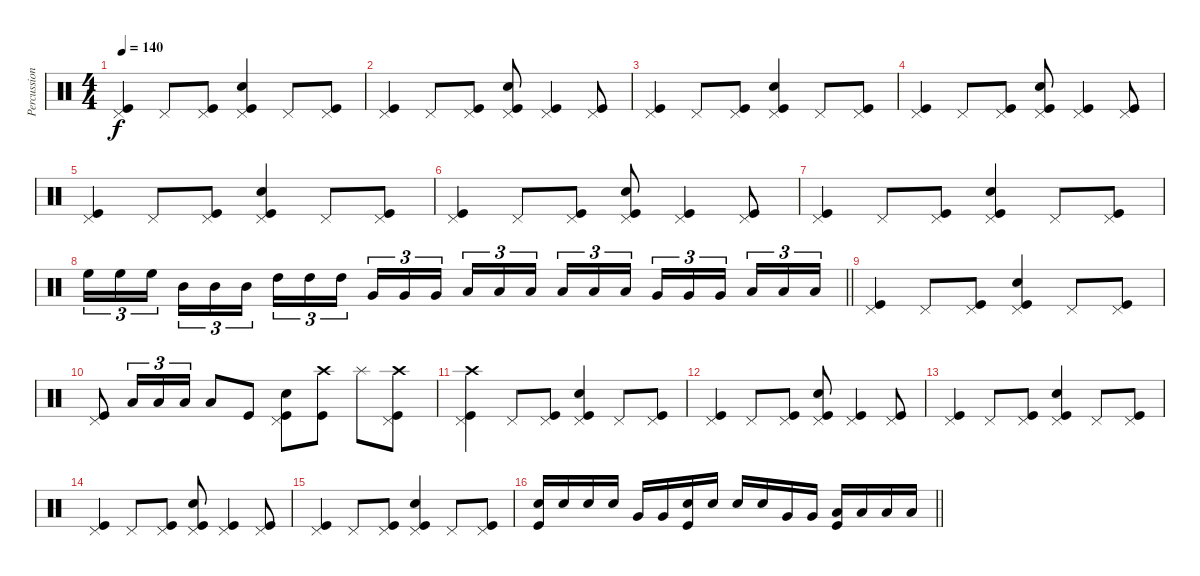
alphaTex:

\track ("Percussion" "Percussion") {instrument percussion}
\staff {score}
\articulation defaults
\ts (4 4)
\tempo 140
\clef neutral
\ks c
("Pedal Hi-Hat (hit)" "Kick (hit)").4{dy f} "Pedal Hi-Hat (hit)".8 ("Pedal Hi-Hat (hit)" "Kick (hit)").8 ("Pedal Hi-Hat (hit)" "Snare (hit) 2" "Kick (hit)").4 "Pedal Hi-Hat (hit)".8 ("Pedal Hi-Hat (hit)" "Kick (hit)").8 |
("Pedal Hi-Hat (hit)" "Kick (hit)").4 "Pedal Hi-Hat (hit)".8 ("Pedal Hi-Hat (hit)" "Kick (hit)").8 ("Pedal Hi-Hat (hit)" "Snare (hit) 2" "Kick (hit)").8 ("Pedal Hi-Hat (hit)" "Kick (hit)").4 ("Pedal Hi-Hat (hit)" "Kick (hit)").8 |
("Pedal Hi-Hat (hit)" "Kick (hit)").4 "Pedal Hi-Hat (hit)".8 ("Pedal Hi-Hat (hit)" "Kick (hit)").8 ("Pedal Hi-Hat (hit)" "Snare (hit) 2" "Kick (hit)").4 "Pedal Hi-Hat (hit)".8 ("Pedal Hi-Hat (hit)" "Kick (hit)").8 |
("Pedal Hi-Hat (hit)" "Kick (hit)").4 "Pedal Hi-Hat (hit)".8 ("Pedal Hi-Hat (hit)" "Kick (hit)").8 ("Pedal Hi-Hat (hit)" "Snare (hit) 2" "Kick (hit)").8 ("Pedal Hi-Hat (hit)" "Kick (hit)").4 ("Pedal Hi-Hat (hit)" "Kick (hit)").8 |
("Pedal Hi-Hat (hit)" "Kick (hit)").4 "Pedal Hi-Hat (hit)".8 ("Pedal Hi-Hat (hit)" "Kick (hit)").8 ("Pedal Hi-Hat (hit)" "Snare (hit) 2" "Kick (hit)").4 "Pedal Hi-Hat (hit)".8 ("Pedal Hi-Hat (hit)" "Kick (hit)").8 |
("Pedal Hi-Hat (hit)" "Kick (hit)").4 "Pedal Hi-Hat (hit)".8 ("Pedal Hi-Hat (hit)" "Kick (hit)").8 ("Pedal Hi-Hat (hit)" "Snare (hit) 2" "Kick (hit)").8 ("Pedal Hi-Hat (hit)" "Kick (hit)").4 ("Pedal Hi-Hat (hit)" "Kick (hit)").8 |
("Pedal Hi-Hat (hit)" "Kick (hit)").4 "Pedal Hi-Hat (hit)".8 ("Pedal Hi-Hat (hit)" "Kick (hit)").8 ("Pedal Hi-Hat (hit)" "Snare (hit) 2" "Kick (hit)").4 "Pedal Hi-Hat (hit)".8 ("Pedal Hi-Hat (hit)" "Kick (hit)").8 |
\barLineRight lightlight "High Floor Tom (hit)".16{tu (3 2)} "High Floor Tom (hit)".16{tu (3 2)} "High Floor Tom (hit)".16{tu (3 2) beam splitsecondary} "Mid Tom (hit)".16{tu (3 2)} "Mid Tom (hit)".16{tu (3 2)} "Mid Tom (hit)".16{tu (3 2)} "High Tom (hit)".16{tu (3 2)} "High Tom (hit)".16{tu (3 2)} "High Tom (hit)".16{tu (3 2) beam splitsecondary} "Very Low Tom (hit)".16{tu (3 2)} "Very Low Tom (hit)".16{tu (3 2)} "Very Low Tom (hit)".16{tu (3 2)} "Low Tom (hit)".16{tu (3 2)} "Low Tom (hit)".16{tu (3 2)} "Low Tom (hit)".16{tu (3 2) beam splitsecondary} "Low Floor Tom (hit)".16{tu (3 2)} "Low Floor Tom (hit)".16{tu (3 2)} "Low Floor Tom (hit)".16{tu (3 2)} "Very Low Tom (hit)".16{tu (3 2)} "Very Low Tom (hit)".16{tu (3 2)} "Very Low Tom (hit)".16{tu (3 2) beam splitsecondary} "Low Floor Tom (hit)".16{tu (3 2)} "Low Floor Tom (hit)".16{tu (3 2)} "Low Floor Tom (hit)".16{tu (3 2)}
|
("Pedal Hi-Hat (hit)" "Kick (hit)").4 "Pedal Hi-Hat (hit)".8 ("Pedal Hi-Hat (hit)" "Kick (hit)").8 ("Pedal Hi-Hat (hit)" "Snare (hit) 2" "Kick (hit)").4 "Pedal Hi-Hat (hit)".8 ("Pedal Hi-Hat (hit)" "Kick (hit)").8 |
("Pedal Hi-Hat (hit)" "Kick (hit)").8 "Low Tom (hit)".16{tu (3 2)} "Low Tom (hit)".16{tu (3 2)} "Low Tom (hit)".16{tu (3 2)} "Low Tom (hit)".8 "Kick (hit)".8 ("Pedal Hi-Hat (hit)" "Snare (hit) 2" "Kick (hit)").8 ("Crash high (hit)" "Kick (hit)").8 "Splash (hit)".8 ("Crash high (hit)" "Pedal Hi-Hat (hit)" "Kick (hit)").8 |
("Crash high (hit)" "Pedal Hi-Hat (hit)" "Kick (hit)").4 "Pedal Hi-Hat (hit)".8 ("Pedal Hi-Hat (hit)" "Kick (hit)").8 ("Pedal Hi-Hat (hit)" "Snare (hit) 2" "Kick (hit)").4 "Pedal Hi-Hat (hit)".8 ("Pedal Hi-Hat (hit)" "Kick (hit)").8 |
("Pedal Hi-Hat (hit)" "Kick (hit)").4 "Pedal Hi-Hat (hit)".8 ("Pedal Hi-Hat (hit)" "Kick (hit)").8 ("Pedal Hi-Hat (hit)" "Snare (hit) 2" "Kick (hit)").8 ("Pedal Hi-Hat (hit)" "Kick (hit)").4 ("Pedal Hi-Hat (hit)" "Kick (hit)").8 |
("Pedal Hi-Hat (hit)" "Kick (hit)").4 "Pedal Hi-Hat (hit)".8 ("Pedal Hi-Hat (hit)" "Kick (hit)").8 ("Pedal Hi-Hat (hit)" "Snare (hit) 2" "Kick (hit)").4 "Pedal Hi-Hat (hit)".8 ("Pedal Hi-Hat (hit)" "Kick (hit)").8 |
("Pedal Hi-Hat (hit)" "Kick (hit)").4 "Pedal Hi-Hat (hit)".8 ("Pedal Hi-Hat (hit)" "Kick (hit)").8 ("Pedal Hi-Hat (hit)" "Snare (hit) 2" "Kick (hit)").8 ("Pedal Hi-Hat (hit)" "Kick (hit)").4 ("Pedal Hi-Hat (hit)" "Kick (hit)").8 |
("Pedal Hi-Hat (hit)" "Kick (hit)").4 "Pedal Hi-Hat (hit)".8 ("Pedal Hi-Hat (hit)" "Kick (hit)").8 ("Pedal Hi-Hat (hit)" "Snare (hit) 2" "Kick (hit)").4 "Pedal Hi-Hat (hit)".8 ("Pedal Hi-Hat (hit)" "Kick (hit)").8 |
\barLineRight lightlight
("Snare (hit) 2" "Kick (hit)").16 "Snare (hit) 2".16 "Snare (hit) 2".16 "Snare (hit) 2".16 "Very Low Tom (hit)".16 "Very Low Tom (hit)".16 ("Snare (hit) 2" "Kick (hit)").16 "Snare (hit) 2".16 "Snare (hit) 2".16 "Snare (hit) 2".16 "Very Low Tom (hit)".16 "Very Low Tom (hit)".16 ("Low Floor Tom (hit)" "Kick (hit)").16 "Low Floor Tom (hit)".16 "Low Floor Tom (hit)".16 "Low Floor Tom (hit)".16
